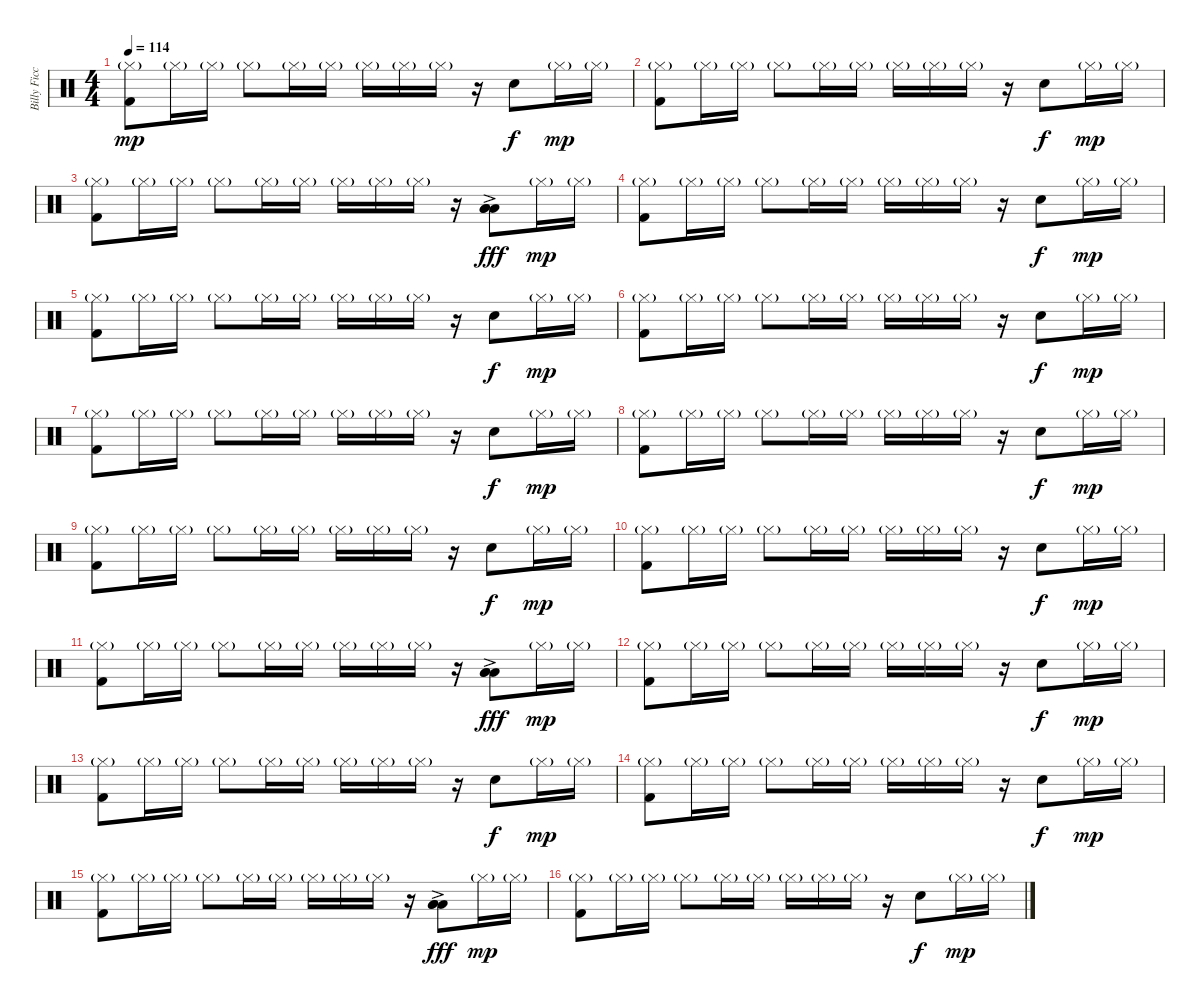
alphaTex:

\track ("Billy Ficca" "Billy Ficc") {instrument percussion}
\staff {score}
\articulation defaults
\ts (4 4)
\tempo 114
\clef neutral
\ks c
("Hi-Hat (closed)"{g} "Kick (hit) 2").8{dy mp} "Hi-Hat (closed)"{g}.16 "Hi-Hat (closed)"{g}.16 "Hi-Hat (closed)"{g}.8 "Hi-Hat (closed)"{g}.16 "Hi-Hat (closed)"{g}.16 "Hi-Hat (closed)"{g}.16 "Hi-Hat (closed)"{g}.16 "Hi-Hat (closed)"{g}.16 r.16 "Electric Snare (hit)".8{dy f} "Hi-Hat (closed)"{g}.16{dy mp} "Hi-Hat (closed)"{g}.16 |
("Hi-Hat (closed)"{g} "Kick (hit) 2").8 "Hi-Hat (closed)"{g}.16 "Hi-Hat (closed)"{g}.16 "Hi-Hat (closed)"{g}.8 "Hi-Hat (closed)"{g}.16 "Hi-Hat (closed)"{g}.16 "Hi-Hat (closed)"{g}.16 "Hi-Hat (closed)"{g}.16 "Hi-Hat (closed)"{g}.16 r.16 "Electric Snare (hit)".8{dy f} "Hi-Hat (closed)"{g}.16{dy mp} "Hi-Hat (closed)"{g}.16 |
("Hi-Hat (closed)"{g} "Kick (hit) 2").8 "Hi-Hat (closed)"{g}.16 "Hi-Hat (closed)"{g}.16 "Hi-Hat (closed)"{g}.8 "Hi-Hat (closed)"{g}.16 "Hi-Hat (closed)"{g}.16 "Hi-Hat (closed)"{g}.16 "Hi-Hat (closed)"{g}.16 "Hi-Hat (closed)"{g}.16 r.16 ("Low Tom (hit)" "Low Floor Tom (hit)" "Low Floor Tom (hit)"{ac}).8{dy fff} "Hi-Hat (closed)"{g}.16{dy mp} "Hi-Hat (closed)"{g}.16 |
("Hi-Hat (closed)"{g} "Kick (hit) 2").8 "Hi-Hat (closed)"{g}.16 "Hi-Hat (closed)"{g}.16 "Hi-Hat (closed)"{g}.8 "Hi-Hat (closed)"{g}.16 "Hi-Hat (closed)"{g}.16 "Hi-Hat (closed)"{g}.16 "Hi-Hat (closed)"{g}.16 "Hi-Hat (closed)"{g}.16 r.16 "Electric Snare (hit)".8{dy f} "Hi-Hat (closed)"{g}.16{dy mp} "Hi-Hat (closed)"{g}.16 |
("Hi-Hat (closed)"{g} "Kick (hit) 2").8 "Hi-Hat (closed)"{g}.16 "Hi-Hat (closed)"{g}.16 "Hi-Hat (closed)"{g}.8 "Hi-Hat (closed)"{g}.16 "Hi-Hat (closed)"{g}.16 "Hi-Hat (closed)"{g}.16 "Hi-Hat (closed)"{g}.16 "Hi-Hat (closed)"{g}.16 r.16 "Electric Snare (hit)".8{dy f} "Hi-Hat (closed)"{g}.16{dy mp} "Hi-Hat (closed)"{g}.16 |
("Hi-Hat (closed)"{g} "Kick (hit) 2").8 "Hi-Hat (closed)"{g}.16 "Hi-Hat (closed)"{g}.16 "Hi-Hat (closed)"{g}.8 "Hi-Hat (closed)"{g}.16 "Hi-Hat (closed)"{g}.16 "Hi-Hat (closed)"{g}.16 "Hi-Hat (closed)"{g}.16 "Hi-Hat (closed)"{g}.16 r.16 "Electric Snare (hit)".8{dy f} "Hi-Hat (closed)"{g}.16{dy mp} "Hi-Hat (closed)"{g}.16 |
("Hi-Hat (closed)"{g} "Kick (hit) 2").8 "Hi-Hat (closed)"{g}.16 "Hi-Hat (closed)"{g}.16 "Hi-Hat (closed)"{g}.8 "Hi-Hat (closed)"{g}.16 "Hi-Hat (closed)"{g}.16 "Hi-Hat (closed)"{g}.16 "Hi-Hat (closed)"{g}.16 "Hi-Hat (closed)"{g}.16 r.16 "Electric Snare (hit)".8{dy f} "Hi-Hat (closed)"{g}.16{dy mp} "Hi-Hat (closed)"{g}.16 |
("Hi-Hat (closed)"{g} "Kick (hit) 2").8 "Hi-Hat (closed)"{g}.16 "Hi-Hat (closed)"{g}.16 "Hi-Hat (closed)"{g}.8 "Hi-Hat (closed)"{g}.16 "Hi-Hat (closed)"{g}.16 "Hi-Hat (closed)"{g}.16 "Hi-Hat (closed)"{g}.16 "Hi-Hat (closed)"{g}.16 r.16 "Electric Snare (hit)".8{dy f} "Hi-Hat (closed)"{g}.16{dy mp} "Hi-Hat (closed)"{g}.16 |
("Hi-Hat (closed)"{g} "Kick (hit) 2").8 "Hi-Hat (closed)"{g}.16 "Hi-Hat (closed)"{g}.16 "Hi-Hat (closed)"{g}.8 "Hi-Hat (closed)"{g}.16 "Hi-Hat (closed)"{g}.16 "Hi-Hat (closed)"{g}.16 "Hi-Hat (closed)"{g}.16 "Hi-Hat (closed)"{g}.16 r.16 "Electric Snare (hit)".8{dy f} "Hi-Hat (closed)"{g}.16{dy mp} "Hi-Hat (closed)"{g}.16 |
("Hi-Hat (closed)"{g} "Kick (hit) 2").8 "Hi-Hat (closed)"{g}.16 "Hi-Hat (closed)"{g}.16 "Hi-Hat (closed)"{g}.8 "Hi-Hat (closed)"{g}.16 "Hi-Hat (closed)"{g}.16 "Hi-Hat (closed)"{g}.16 "Hi-Hat (closed)"{g}.16 "Hi-Hat (closed)"{g}.16 r.16 "Electric Snare (hit)".8{dy f} "Hi-Hat (closed)"{g}.16{dy mp} "Hi-Hat (closed)"{g}.16 |
("Hi-Hat (closed)"{g} "Kick (hit) 2").8 "Hi-Hat (closed)"{g}.16 "Hi-Hat (closed)"{g}.16 "Hi-Hat (closed)"{g}.8 "Hi-Hat (closed)"{g}.16 "Hi-Hat (closed)"{g}.16 "Hi-Hat (closed)"{g}.16 "Hi-Hat (closed)"{g}.16 "Hi-Hat (closed)"{g}.16 r.16 ("Low Tom (hit)" "Low Floor Tom (hit)" "Low Floor Tom (hit)"{ac}).8{dy fff} "Hi-Hat (closed)"{g}.16{dy mp} "Hi-Hat (closed)"{g}.16 |
("Hi-Hat (closed)"{g} "Kick (hit) 2").8 "Hi-Hat (closed)"{g}.16 "Hi-Hat (closed)"{g}.16 "Hi-Hat (closed)"{g}.8 "Hi-Hat (closed)"{g}.16 "Hi-Hat (closed)"{g}.16 "Hi-Hat (closed)"{g}.16 "Hi-Hat (closed)"{g}.16 "Hi-Hat (closed)"{g}.16 r.16 "Electric Snare (hit)".8{dy f} "Hi-Hat (closed)"{g}.16{dy mp} "Hi-Hat (closed)"{g}.16 |
("Hi-Hat (closed)"{g} "Kick (hit) 2").8 "Hi-Hat (closed)"{g}.16 "Hi-Hat (closed)"{g}.16 "Hi-Hat (closed)"{g}.8 "Hi-Hat (closed)"{g}.16 "Hi-Hat (closed)"{g}.16 "Hi-Hat (closed)"{g}.16 "Hi-Hat (closed)"{g}.16 "Hi-Hat (closed)"{g}.16 r.16 "Electric Snare (hit)".8{dy f} "Hi-Hat (closed)"{g}.16{dy mp} "Hi-Hat (closed)"{g}.16 |
("Hi-Hat (closed)"{g} "Kick (hit) 2").8 "Hi-Hat (closed)"{g}.16 "Hi-Hat (closed)"{g}.16 "Hi-Hat (closed)"{g}.8 "Hi-Hat (closed)"{g}.16 "Hi-Hat (closed)"{g}.16 "Hi-Hat (closed)"{g}.16 "Hi-Hat (closed)"{g}.16 "Hi-Hat (closed)"{g}.16 r.16 "Electric Snare (hit)".8{dy f} "Hi-Hat (closed)"{g}.16{dy mp} "Hi-Hat (closed)"{g}.16 |
("Hi-Hat (closed)"{g} "Kick (hit) 2").8 "Hi-Hat (closed)"{g}.16 "Hi-Hat (closed)"{g}.16 "Hi-Hat (closed)"{g}.8 "Hi-Hat (closed)"{g}.16 "Hi-Hat (closed)"{g}.16 "Hi-Hat (closed)"{g}.16 "Hi-Hat (closed)"{g}.16 "Hi-Hat (closed)"{g}.16 r.16 ("Low Tom (hit)" "Low Floor Tom (hit)" "Low Floor Tom (hit)"{ac}).8{dy fff} "Hi-Hat (closed)"{g}.16{dy mp} "Hi-Hat (closed)"{g}.16 |
("Hi-Hat (closed)"{g} "Kick (hit) 2").8 "Hi-Hat (closed)"{g}.16 "Hi-Hat (closed)"{g}.16 "Hi-Hat (closed)"{g}.8 "Hi-Hat (closed)"{g}.16 "Hi-Hat (closed)"{g}.16 "Hi-Hat (closed)"{g}.16 "Hi-Hat (closed)"{g}.16 "Hi-Hat (closed)"{g}.16 r.16 "Electric Snare (hit)".8{dy f} "Hi-Hat (closed)"{g}.16{dy mp} "Hi-Hat (closed)"{g}.16
